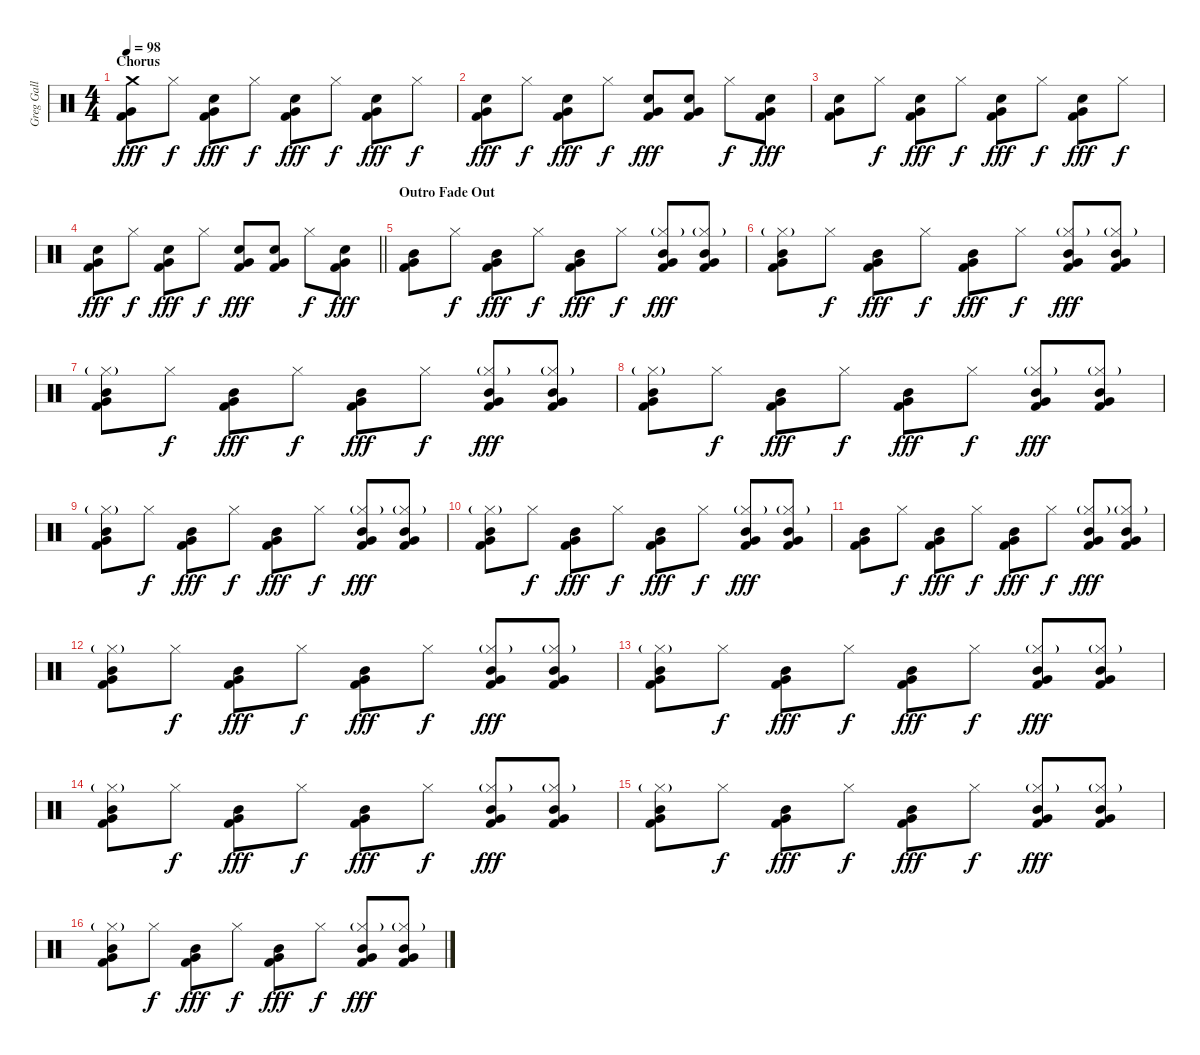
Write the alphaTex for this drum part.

\track ("Greg Gall" "Greg Gall") {instrument percussion}
\staff {score}
\articulation defaults
\ts (4 4)
\section ("" "Chorus")
\tempo 98
\clef neutral
\ks c
("Crash medium (hit)" "Very Low Tom (hit)" "Kick (hit) 2").8{dy fff} "Hi-Hat (closed)".8{dy f} ("Electric Snare (hit)" "Very Low Tom (hit)" "Kick (hit) 2").8{dy fff} "Hi-Hat (closed)".8{dy f} ("Electric Snare (hit)" "Very Low Tom (hit)" "Kick (hit) 2").8{dy fff} "Hi-Hat (closed)".8{dy f} ("Electric Snare (hit)" "Very Low Tom (hit)" "Kick (hit) 2").8{dy fff} "Hi-Hat (closed)".8{dy f} |
("Electric Snare (hit)" "Very Low Tom (hit)" "Kick (hit) 2").8{dy fff} "Hi-Hat (closed)".8{dy f} ("Electric Snare (hit)" "Very Low Tom (hit)" "Kick (hit) 2").8{dy fff} "Hi-Hat (closed)".8{dy f} ("Electric Snare (hit)" "Very Low Tom (hit)" "Kick (hit) 2").8{dy fff} ("Electric Snare (hit)" "Very Low Tom (hit)" "Kick (hit) 2").8 "Hi-Hat (closed)".8{dy f} ("Electric Snare (hit)" "Very Low Tom (hit)" "Kick (hit) 2").8{dy fff} |
("Electric Snare (hit)" "Very Low Tom (hit)" "Kick (hit) 2").8 "Hi-Hat (closed)".8{dy f} ("Electric Snare (hit)" "Very Low Tom (hit)" "Kick (hit) 2").8{dy fff} "Hi-Hat (closed)".8{dy f} ("Electric Snare (hit)" "Very Low Tom (hit)" "Kick (hit) 2").8{dy fff} "Hi-Hat (closed)".8{dy f} ("Electric Snare (hit)" "Very Low Tom (hit)" "Kick (hit) 2").8{dy fff} "Hi-Hat (closed)".8{dy f} |
\barLineRight lightlight
("Electric Snare (hit)" "Very Low Tom (hit)" "Kick (hit) 2").8{dy fff} "Hi-Hat (closed)".8{dy f} ("Electric Snare (hit)" "Very Low Tom (hit)" "Kick (hit) 2").8{dy fff} "Hi-Hat (closed)".8{dy f} ("Electric Snare (hit)" "Very Low Tom (hit)" "Kick (hit) 2").8{dy fff} ("Electric Snare (hit)" "Very Low Tom (hit)" "Kick (hit) 2").8 "Hi-Hat (closed)".8{dy f} ("Electric Snare (hit)" "Very Low Tom (hit)" "Kick (hit) 2").8{dy fff} |
\section ("" "Outro Fade Out")
("Mid Tom (hit)" "Very Low Tom (hit)" "Kick (hit) 2").8 "Hi-Hat (closed)".8{dy f} ("Mid Tom (hit)" "Very Low Tom (hit)" "Kick (hit) 2").8{dy fff} "Hi-Hat (closed)".8{dy f} ("Mid Tom (hit)" "Very Low Tom (hit)" "Kick (hit) 2").8{dy fff} "Hi-Hat (closed)".8{dy f} ("Mid Tom (hit)" "Hi-Hat (closed)"{g} "Very Low Tom (hit)" "Kick (hit) 2").8{dy fff} ("Mid Tom (hit)" "Hi-Hat (closed)"{g} "Very Low Tom (hit)" "Kick (hit) 2").8 |
("Mid Tom (hit)" "Hi-Hat (closed)"{g} "Very Low Tom (hit)" "Kick (hit) 2").8 "Hi-Hat (closed)".8{dy f} ("Mid Tom (hit)" "Very Low Tom (hit)" "Kick (hit) 2").8{dy fff} "Hi-Hat (closed)".8{dy f} ("Mid Tom (hit)" "Very Low Tom (hit)" "Kick (hit) 2").8{dy fff} "Hi-Hat (closed)".8{dy f} ("Mid Tom (hit)" "Hi-Hat (closed)"{g} "Very Low Tom (hit)" "Kick (hit) 2").8{dy fff} ("Mid Tom (hit)" "Hi-Hat (closed)"{g} "Very Low Tom (hit)" "Kick (hit) 2").8 |
("Mid Tom (hit)" "Hi-Hat (closed)"{g} "Very Low Tom (hit)" "Kick (hit) 2").8 "Hi-Hat (closed)".8{dy f} ("Mid Tom (hit)" "Very Low Tom (hit)" "Kick (hit) 2").8{dy fff} "Hi-Hat (closed)".8{dy f} ("Mid Tom (hit)" "Very Low Tom (hit)" "Kick (hit) 2").8{dy fff} "Hi-Hat (closed)".8{dy f} ("Mid Tom (hit)" "Hi-Hat (closed)"{g} "Very Low Tom (hit)" "Kick (hit) 2").8{dy fff} ("Mid Tom (hit)" "Hi-Hat (closed)"{g} "Very Low Tom (hit)" "Kick (hit) 2").8 |
("Mid Tom (hit)" "Hi-Hat (closed)"{g} "Very Low Tom (hit)" "Kick (hit) 2").8 "Hi-Hat (closed)".8{dy f} ("Mid Tom (hit)" "Very Low Tom (hit)" "Kick (hit) 2").8{dy fff} "Hi-Hat (closed)".8{dy f} ("Mid Tom (hit)" "Very Low Tom (hit)" "Kick (hit) 2").8{dy fff} "Hi-Hat (closed)".8{dy f} ("Mid Tom (hit)" "Hi-Hat (closed)"{g} "Very Low Tom (hit)" "Kick (hit) 2").8{dy fff} ("Mid Tom (hit)" "Hi-Hat (closed)"{g} "Very Low Tom (hit)" "Kick (hit) 2").8 |
("Mid Tom (hit)" "Hi-Hat (closed)"{g} "Very Low Tom (hit)" "Kick (hit) 2").8 "Hi-Hat (closed)".8{dy f} ("Mid Tom (hit)" "Very Low Tom (hit)" "Kick (hit) 2").8{dy fff} "Hi-Hat (closed)".8{dy f} ("Mid Tom (hit)" "Very Low Tom (hit)" "Kick (hit) 2").8{dy fff} "Hi-Hat (closed)".8{dy f} ("Mid Tom (hit)" "Hi-Hat (closed)"{g} "Very Low Tom (hit)" "Kick (hit) 2").8{dy fff} ("Mid Tom (hit)" "Hi-Hat (closed)"{g} "Very Low Tom (hit)" "Kick (hit) 2").8 |
("Mid Tom (hit)" "Hi-Hat (closed)"{g} "Very Low Tom (hit)" "Kick (hit) 2").8 "Hi-Hat (closed)".8{dy f} ("Mid Tom (hit)" "Very Low Tom (hit)" "Kick (hit) 2").8{dy fff} "Hi-Hat (closed)".8{dy f} ("Mid Tom (hit)" "Very Low Tom (hit)" "Kick (hit) 2").8{dy fff} "Hi-Hat (closed)".8{dy f} ("Mid Tom (hit)" "Hi-Hat (closed)"{g} "Very Low Tom (hit)" "Kick (hit) 2").8{dy fff} ("Mid Tom (hit)" "Hi-Hat (closed)"{g} "Very Low Tom (hit)" "Kick (hit) 2").8 |
("Mid Tom (hit)" "Very Low Tom (hit)" "Kick (hit) 2").8 "Hi-Hat (closed)".8{dy f} ("Mid Tom (hit)" "Very Low Tom (hit)" "Kick (hit) 2").8{dy fff} "Hi-Hat (closed)".8{dy f} ("Mid Tom (hit)" "Very Low Tom (hit)" "Kick (hit) 2").8{dy fff} "Hi-Hat (closed)".8{dy f} ("Mid Tom (hit)" "Hi-Hat (closed)"{g} "Very Low Tom (hit)" "Kick (hit) 2").8{dy fff} ("Mid Tom (hit)" "Hi-Hat (closed)"{g} "Very Low Tom (hit)" "Kick (hit) 2").8 |
("Mid Tom (hit)" "Hi-Hat (closed)"{g} "Very Low Tom (hit)" "Kick (hit) 2").8 "Hi-Hat (closed)".8{dy f} ("Mid Tom (hit)" "Very Low Tom (hit)" "Kick (hit) 2").8{dy fff} "Hi-Hat (closed)".8{dy f} ("Mid Tom (hit)" "Very Low Tom (hit)" "Kick (hit) 2").8{dy fff} "Hi-Hat (closed)".8{dy f} ("Mid Tom (hit)" "Hi-Hat (closed)"{g} "Very Low Tom (hit)" "Kick (hit) 2").8{dy fff} ("Mid Tom (hit)" "Hi-Hat (closed)"{g} "Very Low Tom (hit)" "Kick (hit) 2").8 |
("Mid Tom (hit)" "Hi-Hat (closed)"{g} "Very Low Tom (hit)" "Kick (hit) 2").8 "Hi-Hat (closed)".8{dy f} ("Mid Tom (hit)" "Very Low Tom (hit)" "Kick (hit) 2").8{dy fff} "Hi-Hat (closed)".8{dy f} ("Mid Tom (hit)" "Very Low Tom (hit)" "Kick (hit) 2").8{dy fff} "Hi-Hat (closed)".8{dy f} ("Mid Tom (hit)" "Hi-Hat (closed)"{g} "Very Low Tom (hit)" "Kick (hit) 2").8{dy fff} ("Mid Tom (hit)" "Hi-Hat (closed)"{g} "Very Low Tom (hit)" "Kick (hit) 2").8 |
("Mid Tom (hit)" "Hi-Hat (closed)"{g} "Very Low Tom (hit)" "Kick (hit) 2").8 "Hi-Hat (closed)".8{dy f} ("Mid Tom (hit)" "Very Low Tom (hit)" "Kick (hit) 2").8{dy fff} "Hi-Hat (closed)".8{dy f} ("Mid Tom (hit)" "Very Low Tom (hit)" "Kick (hit) 2").8{dy fff} "Hi-Hat (closed)".8{dy f} ("Mid Tom (hit)" "Hi-Hat (closed)"{g} "Very Low Tom (hit)" "Kick (hit) 2").8{dy fff} ("Mid Tom (hit)" "Hi-Hat (closed)"{g} "Very Low Tom (hit)" "Kick (hit) 2").8 |
("Mid Tom (hit)" "Hi-Hat (closed)"{g} "Very Low Tom (hit)" "Kick (hit) 2").8 "Hi-Hat (closed)".8{dy f} ("Mid Tom (hit)" "Very Low Tom (hit)" "Kick (hit) 2").8{dy fff} "Hi-Hat (closed)".8{dy f} ("Mid Tom (hit)" "Very Low Tom (hit)" "Kick (hit) 2").8{dy fff} "Hi-Hat (closed)".8{dy f} ("Mid Tom (hit)" "Hi-Hat (closed)"{g} "Very Low Tom (hit)" "Kick (hit) 2").8{dy fff} ("Mid Tom (hit)" "Hi-Hat (closed)"{g} "Very Low Tom (hit)" "Kick (hit) 2").8 |
("Mid Tom (hit)" "Hi-Hat (closed)"{g} "Very Low Tom (hit)" "Kick (hit) 2").8 "Hi-Hat (closed)".8{dy f} ("Mid Tom (hit)" "Very Low Tom (hit)" "Kick (hit) 2").8{dy fff} "Hi-Hat (closed)".8{dy f} ("Mid Tom (hit)" "Very Low Tom (hit)" "Kick (hit) 2").8{dy fff} "Hi-Hat (closed)".8{dy f} ("Mid Tom (hit)" "Hi-Hat (closed)"{g} "Very Low Tom (hit)" "Kick (hit) 2").8{dy fff} ("Mid Tom (hit)" "Hi-Hat (closed)"{g} "Very Low Tom (hit)" "Kick (hit) 2").8
